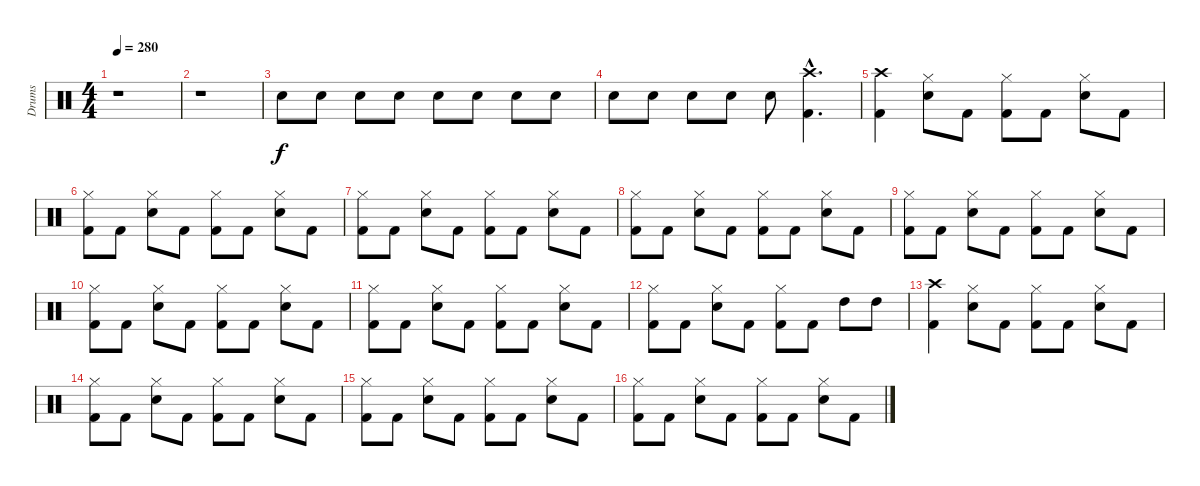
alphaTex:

\track ("Drums" "Drums") {instrument percussion}
\staff {score}
\articulation defaults
\ts (4 4)
\tempo 280
\clef neutral
\ks c
r.1{dy f} |
r.1 |
"Snare (hit) 2".8 "Snare (hit) 2".8 "Snare (hit) 2".8 "Snare (hit) 2".8 "Snare (hit) 2".8 "Snare (hit) 2".8 "Snare (hit) 2".8 "Snare (hit) 2".8 |
"Snare (hit) 2".8 "Snare (hit) 2".8 "Snare (hit) 2".8 "Snare (hit) 2".8 "Snare (hit) 2".8 ("Kick (hit) 2"{hac} "Crash high (hit)"{hac}).4{d} |
("Kick (hit) 2" "Crash high (hit)").4 ("Hi-Hat (closed)" "Snare (hit) 2").8 "Kick (hit) 2".8 ("Hi-Hat (closed)" "Kick (hit) 2").8 "Kick (hit) 2".8 ("Hi-Hat (closed)" "Snare (hit) 2").8 "Kick (hit) 2".8 |
("Hi-Hat (closed)" "Kick (hit) 2").8 "Kick (hit) 2".8 ("Hi-Hat (closed)" "Snare (hit) 2").8 "Kick (hit) 2".8 ("Hi-Hat (closed)" "Kick (hit) 2").8 "Kick (hit) 2".8 ("Hi-Hat (closed)" "Snare (hit) 2").8 "Kick (hit) 2".8 |
("Hi-Hat (closed)" "Kick (hit) 2").8 "Kick (hit) 2".8 ("Hi-Hat (closed)" "Snare (hit) 2").8 "Kick (hit) 2".8 ("Hi-Hat (closed)" "Kick (hit) 2").8 "Kick (hit) 2".8 ("Hi-Hat (closed)" "Snare (hit) 2").8 "Kick (hit) 2".8 |
("Hi-Hat (closed)" "Kick (hit) 2").8 "Kick (hit) 2".8 ("Hi-Hat (closed)" "Snare (hit) 2").8 "Kick (hit) 2".8 ("Hi-Hat (closed)" "Kick (hit) 2").8 "Kick (hit) 2".8 ("Hi-Hat (closed)" "Snare (hit) 2").8 "Kick (hit) 2".8 |
("Hi-Hat (closed)" "Kick (hit) 2").8 "Kick (hit) 2".8 ("Hi-Hat (closed)" "Snare (hit) 2").8 "Kick (hit) 2".8 ("Hi-Hat (closed)" "Kick (hit) 2").8 "Kick (hit) 2".8 ("Hi-Hat (closed)" "Snare (hit) 2").8 "Kick (hit) 2".8 |
("Hi-Hat (closed)" "Kick (hit) 2").8 "Kick (hit) 2".8 ("Hi-Hat (closed)" "Snare (hit) 2").8 "Kick (hit) 2".8 ("Hi-Hat (closed)" "Kick (hit) 2").8 "Kick (hit) 2".8 ("Hi-Hat (closed)" "Snare (hit) 2").8 "Kick (hit) 2".8 |
("Hi-Hat (closed)" "Kick (hit) 2").8 "Kick (hit) 2".8 ("Hi-Hat (closed)" "Snare (hit) 2").8 "Kick (hit) 2".8 ("Hi-Hat (closed)" "Kick (hit) 2").8 "Kick (hit) 2".8 ("Hi-Hat (closed)" "Snare (hit) 2").8 "Kick (hit) 2".8 |
("Hi-Hat (closed)" "Kick (hit) 2").8 "Kick (hit) 2".8 ("Hi-Hat (closed)" "Snare (hit) 2").8 "Kick (hit) 2".8 ("Hi-Hat (closed)" "Kick (hit) 2").8 "Kick (hit) 2".8 "High Tom (hit)".8 "High Tom (hit)".8 |
("Kick (hit) 2" "Crash high (hit)").4 ("Hi-Hat (closed)" "Snare (hit) 2").8 "Kick (hit) 2".8 ("Hi-Hat (closed)" "Kick (hit) 2").8 "Kick (hit) 2".8 ("Hi-Hat (closed)" "Snare (hit) 2").8 "Kick (hit) 2".8 |
("Hi-Hat (closed)" "Kick (hit) 2").8 "Kick (hit) 2".8 ("Hi-Hat (closed)" "Snare (hit) 2").8 "Kick (hit) 2".8 ("Hi-Hat (closed)" "Kick (hit) 2").8 "Kick (hit) 2".8 ("Hi-Hat (closed)" "Snare (hit) 2").8 "Kick (hit) 2".8 |
("Hi-Hat (closed)" "Kick (hit) 2").8 "Kick (hit) 2".8 ("Hi-Hat (closed)" "Snare (hit) 2").8 "Kick (hit) 2".8 ("Hi-Hat (closed)" "Kick (hit) 2").8 "Kick (hit) 2".8 ("Hi-Hat (closed)" "Snare (hit) 2").8 "Kick (hit) 2".8 |
("Hi-Hat (closed)" "Kick (hit) 2").8 "Kick (hit) 2".8 ("Hi-Hat (closed)" "Snare (hit) 2").8 "Kick (hit) 2".8 ("Hi-Hat (closed)" "Kick (hit) 2").8 "Kick (hit) 2".8 ("Hi-Hat (closed)" "Snare (hit) 2").8 "Kick (hit) 2".8
